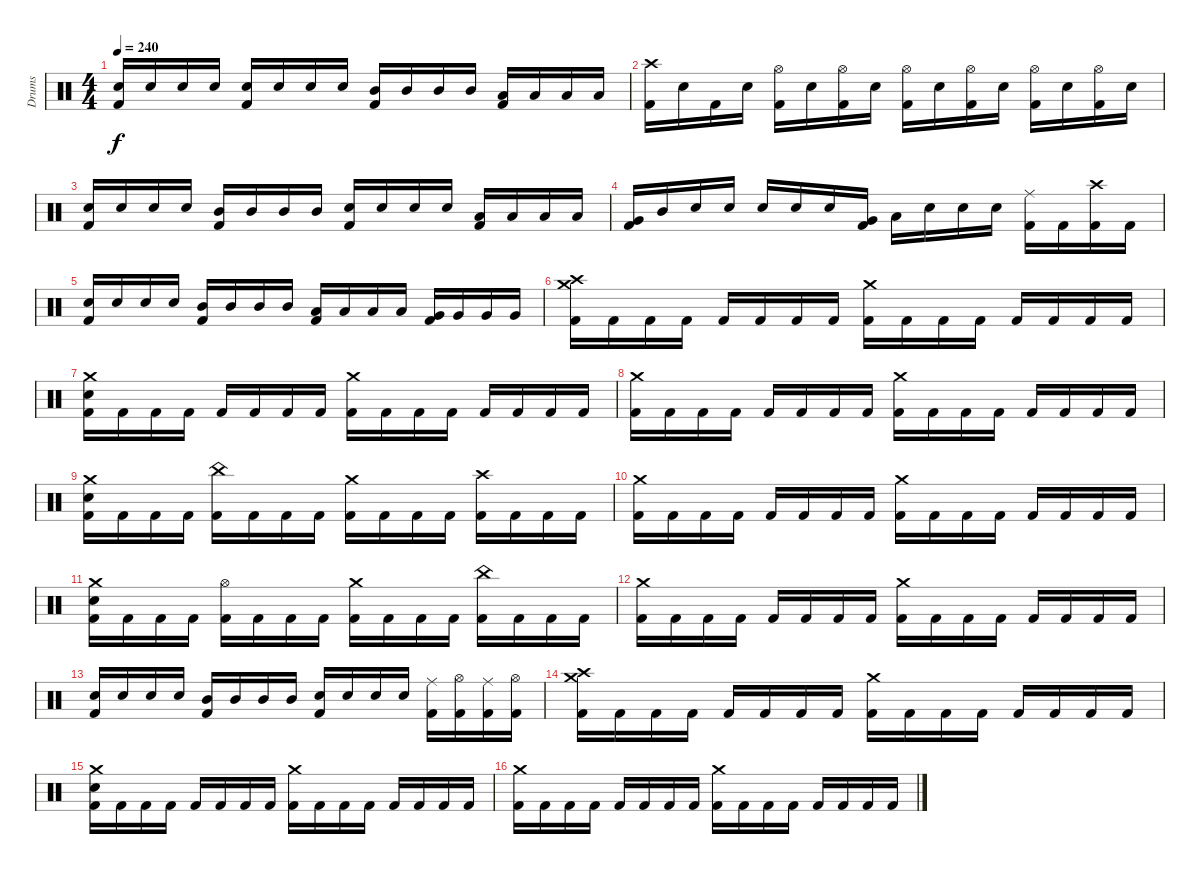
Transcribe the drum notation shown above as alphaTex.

\track ("Drums" "Drums") {instrument percussion}
\staff
\articulation defaults
\ts (4 4)
\tempo 240
\clef neutral
\ks c
("Electric Snare (hit)" "Kick (hit) 2").16{dy f} "Electric Snare (hit)".16 "Electric Snare (hit)".16 "Electric Snare (hit)".16 ("Electric Snare (hit)" "Kick (hit) 2").16 "Electric Snare (hit)".16 "Electric Snare (hit)".16 "Electric Snare (hit)".16 ("Mid Tom (hit)" "Kick (hit) 2").16 "Mid Tom (hit)".16 "Mid Tom (hit)".16 "Mid Tom (hit)".16 ("Low Tom (hit)" "Kick (hit) 2").16 "Low Tom (hit)".16 "Low Tom (hit)".16 "Low Tom (hit)".16 |
("Crash high (hit)" "Kick (hit) 2").16 "Electric Snare (hit)".16 "Kick (hit) 2".16 "Electric Snare (hit)".16 ("Hi-Hat (open)" "Kick (hit) 2").16 "Electric Snare (hit)".16 ("Hi-Hat (open)" "Kick (hit) 2").16 "Electric Snare (hit)".16 ("Hi-Hat (open)" "Kick (hit) 2").16 "Electric Snare (hit)".16 ("Hi-Hat (open)" "Kick (hit) 2").16 "Electric Snare (hit)".16 ("Hi-Hat (open)" "Kick (hit) 2").16 "Electric Snare (hit)".16 ("Hi-Hat (open)" "Kick (hit) 2").16 "Electric Snare (hit)".16 |
("Electric Snare (hit)" "Kick (hit) 2").16 "Electric Snare (hit)".16 "Electric Snare (hit)".16 "Electric Snare (hit)".16 ("Mid Tom (hit)" "Kick (hit) 2").16 "Mid Tom (hit)".16 "Mid Tom (hit)".16 "Mid Tom (hit)".16 ("Electric Snare (hit)" "Kick (hit) 2").16 "Electric Snare (hit)".16 "Electric Snare (hit)".16 "Electric Snare (hit)".16 ("Low Tom (hit)" "Kick (hit) 2").16 "Low Tom (hit)".16 "Low Tom (hit)".16 "Low Tom (hit)".16 |
("Very Low Tom (hit)" "Kick (hit) 2").16 "Mid Tom (hit)".16 "Electric Snare (hit)".16 "Electric Snare (hit)".16 "Electric Snare (hit)".16 "Electric Snare (hit)".16 "Electric Snare (hit)".16 ("Very Low Tom (hit)" "Kick (hit) 2").16 "Low Tom (hit)".16 "Electric Snare (hit)".16 "Electric Snare (hit)".16 "Electric Snare (hit)".16 ("Ride (middle)" "Kick (hit) 2").16 "Kick (hit) 2".16 ("Crash high (hit)" "Kick (hit) 2").16 "Kick (hit) 2".16 |
("Electric Snare (hit)" "Kick (hit) 2").16 "Electric Snare (hit)".16 "Electric Snare (hit)".16 "Electric Snare (hit)".16 ("Mid Tom (hit)" "Kick (hit) 2").16 "Mid Tom (hit)".16 "Mid Tom (hit)".16 "Mid Tom (hit)".16 ("Low Tom (hit)" "Kick (hit) 2").16 "Low Tom (hit)".16 "Low Tom (hit)".16 "Low Tom (hit)".16 ("Very Low Tom (hit)" "Kick (hit) 2").16 "Very Low Tom (hit)".16 "Very Low Tom (hit)".16 "Very Low Tom (hit)".16 |
("Crash medium (hit)" "Crash high (hit)" "Kick (hit) 2").16 "Kick (hit) 2".16 "Kick (hit) 2".16 "Kick (hit) 2".16 "Kick (hit) 2".16 "Kick (hit) 2".16 "Kick (hit) 2".16 "Kick (hit) 2".16 ("Crash medium (hit)" "Kick (hit) 2").16 "Kick (hit) 2".16 "Kick (hit) 2".16 "Kick (hit) 2".16 "Kick (hit) 2".16 "Kick (hit) 2".16 "Kick (hit) 2".16 "Kick (hit) 2".16 |
("Crash medium (hit)" "Electric Snare (hit)" "Kick (hit) 2").16 "Kick (hit) 2".16 "Kick (hit) 2".16 "Kick (hit) 2".16 "Kick (hit) 2".16 "Kick (hit) 2".16 "Kick (hit) 2".16 "Kick (hit) 2".16 ("Crash medium (hit)" "Kick (hit) 2").16 "Kick (hit) 2".16 "Kick (hit) 2".16 "Kick (hit) 2".16 "Kick (hit) 2".16 "Kick (hit) 2".16 "Kick (hit) 2".16 "Kick (hit) 2".16 |
("Crash medium (hit)" "Kick (hit) 2").16 "Kick (hit) 2".16 "Kick (hit) 2".16 "Kick (hit) 2".16 "Kick (hit) 2".16 "Kick (hit) 2".16 "Kick (hit) 2".16 "Kick (hit) 2".16 ("Crash medium (hit)" "Kick (hit) 2").16 "Kick (hit) 2".16 "Kick (hit) 2".16 "Kick (hit) 2".16 "Kick (hit) 2".16 "Kick (hit) 2".16 "Kick (hit) 2".16 "Kick (hit) 2".16 |
("Crash medium (hit)" "Electric Snare (hit)" "Kick (hit) 2").16 "Kick (hit) 2".16 "Kick (hit) 2".16 "Kick (hit) 2".16 ("China (hit)" "Kick (hit) 2").16 "Kick (hit) 2".16 "Kick (hit) 2".16 "Kick (hit) 2".16 ("Crash medium (hit)" "Kick (hit) 2").16 "Kick (hit) 2".16 "Kick (hit) 2".16 "Kick (hit) 2".16 ("Crash high (hit)" "Kick (hit) 2").16 "Kick (hit) 2".16 "Kick (hit) 2".16 "Kick (hit) 2".16 |
("Crash medium (hit)" "Kick (hit) 2").16 "Kick (hit) 2".16 "Kick (hit) 2".16 "Kick (hit) 2".16 "Kick (hit) 2".16 "Kick (hit) 2".16 "Kick (hit) 2".16 "Kick (hit) 2".16 ("Crash medium (hit)" "Kick (hit) 2").16 "Kick (hit) 2".16 "Kick (hit) 2".16 "Kick (hit) 2".16 "Kick (hit) 2".16 "Kick (hit) 2".16 "Kick (hit) 2".16 "Kick (hit) 2".16 |
("Crash medium (hit)" "Electric Snare (hit)" "Kick (hit) 2").16 "Kick (hit) 2".16 "Kick (hit) 2".16 "Kick (hit) 2".16 ("Hi-Hat (open)" "Kick (hit) 2").16 "Kick (hit) 2".16 "Kick (hit) 2".16 "Kick (hit) 2".16 ("Crash medium (hit)" "Kick (hit) 2").16 "Kick (hit) 2".16 "Kick (hit) 2".16 "Kick (hit) 2".16 ("China (hit)" "Kick (hit) 2").16 "Kick (hit) 2".16 "Kick (hit) 2".16 "Kick (hit) 2".16 |
("Crash medium (hit)" "Kick (hit) 2").16 "Kick (hit) 2".16 "Kick (hit) 2".16 "Kick (hit) 2".16 "Kick (hit) 2".16 "Kick (hit) 2".16 "Kick (hit) 2".16 "Kick (hit) 2".16 ("Crash medium (hit)" "Kick (hit) 2").16 "Kick (hit) 2".16 "Kick (hit) 2".16 "Kick (hit) 2".16 "Kick (hit) 2".16 "Kick (hit) 2".16 "Kick (hit) 2".16 "Kick (hit) 2".16 |
("Electric Snare (hit)" "Kick (hit) 2").16 "Electric Snare (hit)".16 "Electric Snare (hit)".16 "Electric Snare (hit)".16 ("Mid Tom (hit)" "Kick (hit) 2").16 "Mid Tom (hit)".16 "Mid Tom (hit)".16 "Mid Tom (hit)".16 ("Electric Snare (hit)" "Kick (hit) 2").16 "Electric Snare (hit)".16 "Electric Snare (hit)".16 "Electric Snare (hit)".16 ("Ride (middle)" "Kick (hit) 2").16 ("Hi-Hat (open)" "Kick (hit) 2").16 ("Ride (middle)" "Kick (hit) 2").16 ("Hi-Hat (open)" "Kick (hit) 2").16 |
("Crash medium (hit)" "Crash high (hit)" "Kick (hit) 2").16 "Kick (hit) 2".16 "Kick (hit) 2".16 "Kick (hit) 2".16 "Kick (hit) 2".16 "Kick (hit) 2".16 "Kick (hit) 2".16 "Kick (hit) 2".16 ("Crash medium (hit)" "Kick (hit) 2").16 "Kick (hit) 2".16 "Kick (hit) 2".16 "Kick (hit) 2".16 "Kick (hit) 2".16 "Kick (hit) 2".16 "Kick (hit) 2".16 "Kick (hit) 2".16 |
("Crash medium (hit)" "Electric Snare (hit)" "Kick (hit) 2").16 "Kick (hit) 2".16 "Kick (hit) 2".16 "Kick (hit) 2".16 "Kick (hit) 2".16 "Kick (hit) 2".16 "Kick (hit) 2".16 "Kick (hit) 2".16 ("Crash medium (hit)" "Kick (hit) 2").16 "Kick (hit) 2".16 "Kick (hit) 2".16 "Kick (hit) 2".16 "Kick (hit) 2".16 "Kick (hit) 2".16 "Kick (hit) 2".16 "Kick (hit) 2".16 |
("Crash medium (hit)" "Kick (hit) 2").16 "Kick (hit) 2".16 "Kick (hit) 2".16 "Kick (hit) 2".16 "Kick (hit) 2".16 "Kick (hit) 2".16 "Kick (hit) 2".16 "Kick (hit) 2".16 ("Crash medium (hit)" "Kick (hit) 2").16 "Kick (hit) 2".16 "Kick (hit) 2".16 "Kick (hit) 2".16 "Kick (hit) 2".16 "Kick (hit) 2".16 "Kick (hit) 2".16 "Kick (hit) 2".16
